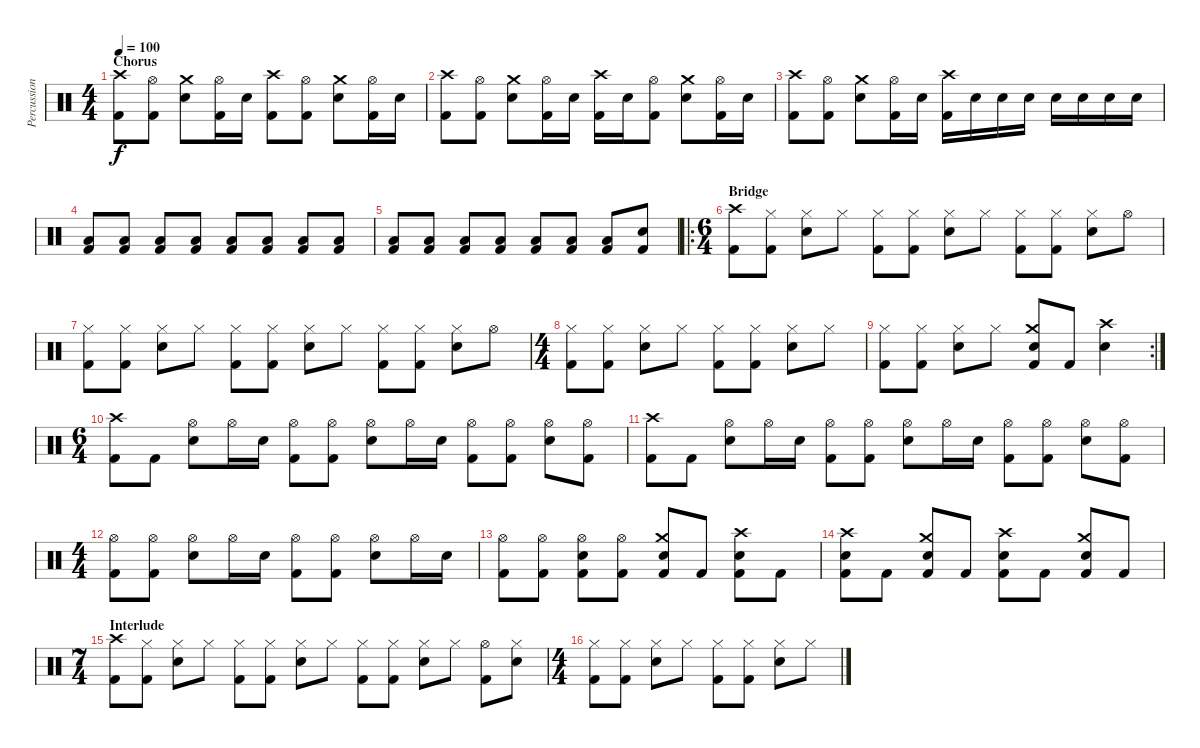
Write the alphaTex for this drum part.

\track ("Percussion" "Percussion") {instrument percussion}
\staff {score}
\articulation defaults
\ts (4 4)
\section ("" "Chorus")
\tempo 100
\clef neutral
\ks c
("Crash high (hit)" "Kick (hit) 2").8{dy f} ("Hi-Hat (open)" "Kick (hit) 2").8 ("Crash medium (hit)" "Electric Snare (hit)").8 ("Hi-Hat (open)" "Kick (hit) 2").16 "Electric Snare (hit)".16 ("Crash high (hit)" "Kick (hit) 2").8 ("Hi-Hat (open)" "Kick (hit) 2").8 ("Crash medium (hit)" "Electric Snare (hit)").8 ("Hi-Hat (open)" "Kick (hit) 2").16 "Electric Snare (hit)".16 |
("Crash high (hit)" "Kick (hit) 2").8 ("Hi-Hat (open)" "Kick (hit) 2").8 ("Crash medium (hit)" "Electric Snare (hit)").8 ("Hi-Hat (open)" "Kick (hit) 2").16 "Electric Snare (hit)".16 ("Crash high (hit)" "Kick (hit) 2").16 "Electric Snare (hit)".16 ("Hi-Hat (open)" "Kick (hit) 2").8 ("Crash medium (hit)" "Electric Snare (hit)").8 ("Hi-Hat (open)" "Kick (hit) 2").16 "Electric Snare (hit)".16 |
("Crash high (hit)" "Kick (hit) 2").8 ("Hi-Hat (open)" "Kick (hit) 2").8 ("Crash medium (hit)" "Electric Snare (hit)").8 ("Hi-Hat (open)" "Kick (hit) 2").16 "Electric Snare (hit)".16 ("Crash high (hit)" "Kick (hit) 2").16 "Electric Snare (hit)".16 "Electric Snare (hit)".16 "Electric Snare (hit)".16 "Electric Snare (hit)".16 "Electric Snare (hit)".16 "Electric Snare (hit)".16 "Electric Snare (hit)".16 |
("Low Floor Tom (hit)" "Kick (hit) 2").8 ("Low Floor Tom (hit)" "Kick (hit) 2").8 ("Low Floor Tom (hit)" "Kick (hit) 2").8 ("Low Floor Tom (hit)" "Kick (hit) 2").8 ("Low Floor Tom (hit)" "Kick (hit) 2").8 ("Low Floor Tom (hit)" "Kick (hit) 2").8 ("Low Floor Tom (hit)" "Kick (hit) 2").8 ("Low Floor Tom (hit)" "Kick (hit) 2").8 |
("Low Floor Tom (hit)" "Kick (hit) 2").8 ("Low Floor Tom (hit)" "Kick (hit) 2").8 ("Low Floor Tom (hit)" "Kick (hit) 2").8 ("Low Floor Tom (hit)" "Kick (hit) 2").8 ("Low Floor Tom (hit)" "Kick (hit) 2").8 ("Low Floor Tom (hit)" "Kick (hit) 2").8 ("Low Floor Tom (hit)" "Kick (hit) 2").8 ("Electric Snare (hit)" "Kick (hit) 2").8 |
\ro
\ts (6 4)
\section ("" "Bridge")
("Crash high (hit)" "Kick (hit) 2").8 ("Hi-Hat (closed)" "Kick (hit) 2").8 ("Hi-Hat (closed)" "Electric Snare (hit)").8 "Hi-Hat (closed)".8 ("Hi-Hat (closed)" "Kick (hit) 2").8 ("Hi-Hat (closed)" "Kick (hit) 2").8 ("Hi-Hat (closed)" "Electric Snare (hit)").8 "Hi-Hat (closed)".8 ("Hi-Hat (closed)" "Kick (hit) 2").8 ("Hi-Hat (closed)" "Kick (hit) 2").8 ("Hi-Hat (closed)" "Electric Snare (hit)").8 "Hi-Hat (open)".8 |
("Hi-Hat (closed)" "Kick (hit) 2").8 ("Hi-Hat (closed)" "Kick (hit) 2").8 ("Hi-Hat (closed)" "Electric Snare (hit)").8 "Hi-Hat (closed)".8 ("Hi-Hat (closed)" "Kick (hit) 2").8 ("Hi-Hat (closed)" "Kick (hit) 2").8 ("Hi-Hat (closed)" "Electric Snare (hit)").8 "Hi-Hat (closed)".8 ("Hi-Hat (closed)" "Kick (hit) 2").8 ("Hi-Hat (closed)" "Kick (hit) 2").8 ("Hi-Hat (closed)" "Electric Snare (hit)").8 "Hi-Hat (open)".8 |
\ts (4 4)
("Hi-Hat (closed)" "Kick (hit) 2").8 ("Hi-Hat (closed)" "Kick (hit) 2").8 ("Hi-Hat (closed)" "Electric Snare (hit)").8 "Hi-Hat (closed)".8 ("Hi-Hat (closed)" "Kick (hit) 2").8 ("Hi-Hat (closed)" "Kick (hit) 2").8 ("Hi-Hat (closed)" "Electric Snare (hit)").8 "Hi-Hat (closed)".8 |
\rc 2
("Hi-Hat (closed)" "Kick (hit) 2").8 ("Hi-Hat (closed)" "Kick (hit) 2").8 ("Hi-Hat (closed)" "Electric Snare (hit)").8 "Hi-Hat (closed)".8 ("Crash medium (hit)" "Electric Snare (hit)" "Kick (hit) 2").8 "Kick (hit) 2".8 ("Crash high (hit)" "Electric Snare (hit)").4 |
\ts (6 4)
("Crash high (hit)" "Kick (hit) 2").8 "Kick (hit) 2".8 ("Hi-Hat (open)" "Electric Snare (hit)").8 "Hi-Hat (open)".16 "Electric Snare (hit)".16 ("Hi-Hat (open)" "Kick (hit) 2").8 ("Hi-Hat (open)" "Kick (hit) 2").8 ("Hi-Hat (open)" "Electric Snare (hit)").8 "Hi-Hat (open)".16 "Electric Snare (hit)".16 ("Hi-Hat (open)" "Kick (hit) 2").8 ("Hi-Hat (open)" "Kick (hit) 2").8 ("Hi-Hat (open)" "Electric Snare (hit)").8 ("Hi-Hat (open)" "Kick (hit) 2").8 |
("Crash high (hit)" "Kick (hit) 2").8 "Kick (hit) 2".8 ("Hi-Hat (open)" "Electric Snare (hit)").8 "Hi-Hat (open)".16 "Electric Snare (hit)".16 ("Hi-Hat (open)" "Kick (hit) 2").8 ("Hi-Hat (open)" "Kick (hit) 2").8 ("Hi-Hat (open)" "Electric Snare (hit)").8 "Hi-Hat (open)".16 "Electric Snare (hit)".16 ("Hi-Hat (open)" "Kick (hit) 2").8 ("Hi-Hat (open)" "Kick (hit) 2").8 ("Hi-Hat (open)" "Electric Snare (hit)").8 ("Hi-Hat (open)" "Kick (hit) 2").8 |
\ts (4 4)
("Hi-Hat (open)" "Kick (hit) 2").8 ("Hi-Hat (open)" "Kick (hit) 2").8 ("Hi-Hat (open)" "Electric Snare (hit)").8 "Hi-Hat (open)".16 "Electric Snare (hit)".16 ("Hi-Hat (open)" "Kick (hit) 2").8 ("Hi-Hat (open)" "Kick (hit) 2").8 ("Hi-Hat (open)" "Electric Snare (hit)").8 "Hi-Hat (open)".16 "Electric Snare (hit)".16 |
("Hi-Hat (open)" "Kick (hit) 2").8 ("Hi-Hat (open)" "Kick (hit) 2").8 ("Hi-Hat (open)" "Electric Snare (hit)" "Kick (hit) 2").8 ("Hi-Hat (open)" "Kick (hit) 2").8 ("Crash medium (hit)" "Electric Snare (hit)" "Kick (hit) 2").8 "Kick (hit) 2".8 ("Crash high (hit)" "Electric Snare (hit)" "Kick (hit) 2").8 "Kick (hit) 2".8 |
("Crash high (hit)" "Electric Snare (hit)" "Kick (hit) 2").8 "Kick (hit) 2".8 ("Crash medium (hit)" "Electric Snare (hit)" "Kick (hit) 2").8 "Kick (hit) 2".8 ("Crash high (hit)" "Electric Snare (hit)" "Kick (hit) 2").8 "Kick (hit) 2".8 ("Crash medium (hit)" "Electric Snare (hit)" "Kick (hit) 2").8 "Kick (hit) 2".8 |
\ts (7 4)
\section ("" "Interlude")
("Crash high (hit)" "Kick (hit) 2").8 ("Hi-Hat (closed)" "Kick (hit) 2").8 ("Hi-Hat (closed)" "Electric Snare (hit)").8 "Hi-Hat (closed)".8 ("Hi-Hat (closed)" "Kick (hit) 2").8 ("Hi-Hat (closed)" "Kick (hit) 2").8 ("Hi-Hat (closed)" "Electric Snare (hit)").8 "Hi-Hat (closed)".8 ("Hi-Hat (closed)" "Kick (hit) 2").8 ("Hi-Hat (closed)" "Kick (hit) 2").8 ("Hi-Hat (closed)" "Electric Snare (hit)").8 "Hi-Hat (closed)".8 ("Hi-Hat (open)" "Kick (hit) 2").8 ("Hi-Hat (closed)" "Electric Snare (hit)").8 |
\ts (4 4)
("Hi-Hat (closed)" "Kick (hit) 2").8 ("Hi-Hat (closed)" "Kick (hit) 2").8 ("Hi-Hat (closed)" "Electric Snare (hit)").8 "Hi-Hat (closed)".8 ("Hi-Hat (closed)" "Kick (hit) 2").8 ("Hi-Hat (closed)" "Kick (hit) 2").8 ("Hi-Hat (closed)" "Electric Snare (hit)").8 "Hi-Hat (closed)".8
